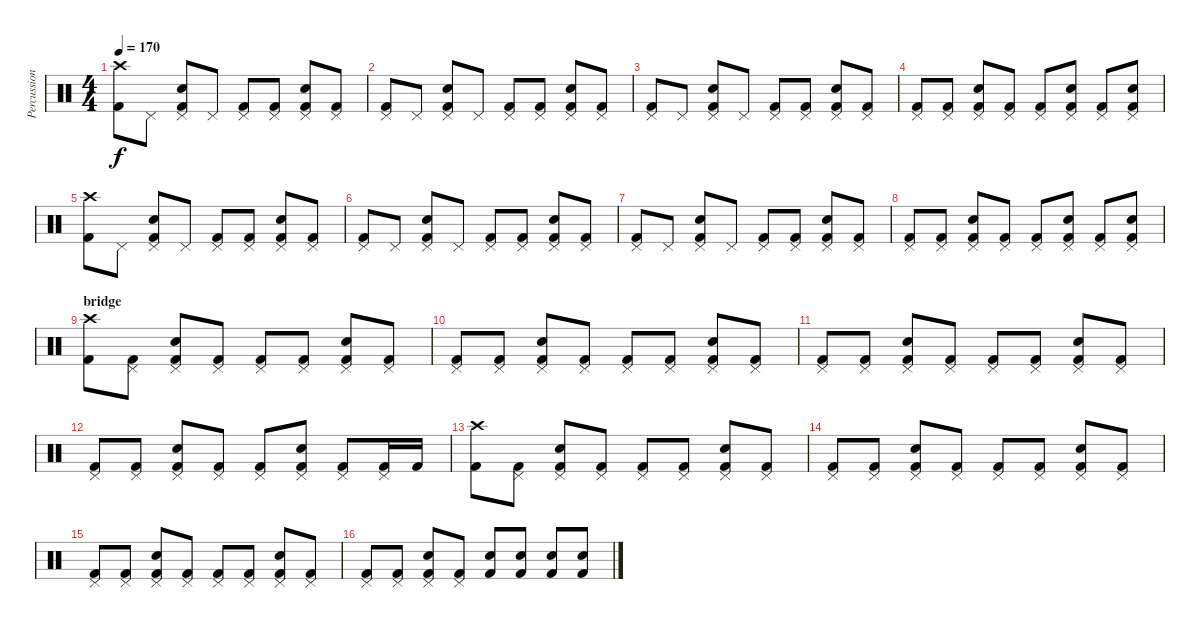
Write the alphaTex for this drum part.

\track ("Percussion" "Percussion") {instrument percussion}
\staff {score}
\articulation defaults
\ts (4 4)
\section ("" "")
\tempo 170
\clef neutral
\ks c
("Crash high (hit)" "Kick (hit) 2").8{dy f} "Pedal Hi-Hat (hit)".8 ("Pedal Hi-Hat (hit)" "Electric Snare (hit)" "Kick (hit) 2").8 "Pedal Hi-Hat (hit)".8 ("Pedal Hi-Hat (hit)" "Kick (hit) 2").8 ("Pedal Hi-Hat (hit)" "Kick (hit) 2").8 ("Pedal Hi-Hat (hit)" "Electric Snare (hit)" "Kick (hit) 2").8 ("Pedal Hi-Hat (hit)" "Kick (hit) 2").8 |
("Pedal Hi-Hat (hit)" "Kick (hit) 2").8 "Pedal Hi-Hat (hit)".8 ("Pedal Hi-Hat (hit)" "Electric Snare (hit)" "Kick (hit) 2").8 "Pedal Hi-Hat (hit)".8 ("Pedal Hi-Hat (hit)" "Kick (hit) 2").8 ("Pedal Hi-Hat (hit)" "Kick (hit) 2").8 ("Pedal Hi-Hat (hit)" "Electric Snare (hit)" "Kick (hit) 2").8 ("Pedal Hi-Hat (hit)" "Kick (hit) 2").8 |
("Pedal Hi-Hat (hit)" "Kick (hit) 2").8 "Pedal Hi-Hat (hit)".8 ("Pedal Hi-Hat (hit)" "Electric Snare (hit)" "Kick (hit) 2").8 "Pedal Hi-Hat (hit)".8 ("Pedal Hi-Hat (hit)" "Kick (hit) 2").8 ("Pedal Hi-Hat (hit)" "Kick (hit) 2").8 ("Pedal Hi-Hat (hit)" "Electric Snare (hit)" "Kick (hit) 2").8 ("Pedal Hi-Hat (hit)" "Kick (hit) 2").8 |
("Pedal Hi-Hat (hit)" "Kick (hit) 2").8 ("Pedal Hi-Hat (hit)" "Kick (hit) 2").8 ("Pedal Hi-Hat (hit)" "Electric Snare (hit)" "Kick (hit) 2").8 ("Pedal Hi-Hat (hit)" "Kick (hit) 2").8 ("Pedal Hi-Hat (hit)" "Kick (hit) 2").8 ("Pedal Hi-Hat (hit)" "Electric Snare (hit)" "Kick (hit) 2").8 ("Pedal Hi-Hat (hit)" "Kick (hit) 2").8 ("Pedal Hi-Hat (hit)" "Electric Snare (hit)" "Kick (hit) 2").8 |
("Crash high (hit)" "Kick (hit) 2").8 "Pedal Hi-Hat (hit)".8 ("Pedal Hi-Hat (hit)" "Electric Snare (hit)" "Kick (hit) 2").8 "Pedal Hi-Hat (hit)".8 ("Pedal Hi-Hat (hit)" "Kick (hit) 2").8 ("Pedal Hi-Hat (hit)" "Kick (hit) 2").8 ("Pedal Hi-Hat (hit)" "Electric Snare (hit)" "Kick (hit) 2").8 ("Pedal Hi-Hat (hit)" "Kick (hit) 2").8 |
("Pedal Hi-Hat (hit)" "Kick (hit) 2").8 "Pedal Hi-Hat (hit)".8 ("Pedal Hi-Hat (hit)" "Electric Snare (hit)" "Kick (hit) 2").8 "Pedal Hi-Hat (hit)".8 ("Pedal Hi-Hat (hit)" "Kick (hit) 2").8 ("Pedal Hi-Hat (hit)" "Kick (hit) 2").8 ("Pedal Hi-Hat (hit)" "Electric Snare (hit)" "Kick (hit) 2").8 ("Pedal Hi-Hat (hit)" "Kick (hit) 2").8 |
("Pedal Hi-Hat (hit)" "Kick (hit) 2").8 "Pedal Hi-Hat (hit)".8 ("Pedal Hi-Hat (hit)" "Electric Snare (hit)" "Kick (hit) 2").8 "Pedal Hi-Hat (hit)".8 ("Pedal Hi-Hat (hit)" "Kick (hit) 2").8 ("Pedal Hi-Hat (hit)" "Kick (hit) 2").8 ("Pedal Hi-Hat (hit)" "Electric Snare (hit)" "Kick (hit) 2").8 ("Pedal Hi-Hat (hit)" "Kick (hit) 2").8 |
("Pedal Hi-Hat (hit)" "Kick (hit) 2").8 ("Pedal Hi-Hat (hit)" "Kick (hit) 2").8 ("Pedal Hi-Hat (hit)" "Electric Snare (hit)" "Kick (hit) 2").8 ("Pedal Hi-Hat (hit)" "Kick (hit) 2").8 ("Pedal Hi-Hat (hit)" "Kick (hit) 2").8 ("Pedal Hi-Hat (hit)" "Electric Snare (hit)" "Kick (hit) 2").8 ("Pedal Hi-Hat (hit)" "Kick (hit) 2").8 ("Pedal Hi-Hat (hit)" "Electric Snare (hit)" "Kick (hit) 2").8 |
\section ("" "bridge")
("Crash high (hit)" "Kick (hit) 2").8 ("Pedal Hi-Hat (hit)" "Kick (hit) 2").8 ("Pedal Hi-Hat (hit)" "Electric Snare (hit)" "Kick (hit) 2").8 ("Pedal Hi-Hat (hit)" "Kick (hit) 2").8 ("Pedal Hi-Hat (hit)" "Kick (hit) 2").8 ("Pedal Hi-Hat (hit)" "Kick (hit) 2").8 ("Pedal Hi-Hat (hit)" "Electric Snare (hit)" "Kick (hit) 2").8 ("Pedal Hi-Hat (hit)" "Kick (hit) 2").8 |
("Pedal Hi-Hat (hit)" "Kick (hit) 2").8 ("Pedal Hi-Hat (hit)" "Kick (hit) 2").8 ("Pedal Hi-Hat (hit)" "Electric Snare (hit)" "Kick (hit) 2").8 ("Pedal Hi-Hat (hit)" "Kick (hit) 2").8 ("Pedal Hi-Hat (hit)" "Kick (hit) 2").8 ("Pedal Hi-Hat (hit)" "Kick (hit) 2").8 ("Pedal Hi-Hat (hit)" "Electric Snare (hit)" "Kick (hit) 2").8 ("Pedal Hi-Hat (hit)" "Kick (hit) 2").8 |
("Pedal Hi-Hat (hit)" "Kick (hit) 2").8 ("Pedal Hi-Hat (hit)" "Kick (hit) 2").8 ("Pedal Hi-Hat (hit)" "Electric Snare (hit)" "Kick (hit) 2").8 ("Pedal Hi-Hat (hit)" "Kick (hit) 2").8 ("Pedal Hi-Hat (hit)" "Kick (hit) 2").8 ("Pedal Hi-Hat (hit)" "Kick (hit) 2").8 ("Pedal Hi-Hat (hit)" "Electric Snare (hit)" "Kick (hit) 2").8 ("Pedal Hi-Hat (hit)" "Kick (hit) 2").8 |
("Pedal Hi-Hat (hit)" "Kick (hit) 2").8 ("Pedal Hi-Hat (hit)" "Kick (hit) 2").8 ("Pedal Hi-Hat (hit)" "Electric Snare (hit)" "Kick (hit) 2").8 ("Pedal Hi-Hat (hit)" "Kick (hit) 2").8 ("Pedal Hi-Hat (hit)" "Kick (hit) 2").8 ("Pedal Hi-Hat (hit)" "Electric Snare (hit)" "Kick (hit) 2").8 ("Pedal Hi-Hat (hit)" "Kick (hit) 2").8 ("Pedal Hi-Hat (hit)" "Kick (hit) 2").16 "Kick (hit) 2".16 |
("Crash high (hit)" "Kick (hit) 2").8 ("Pedal Hi-Hat (hit)" "Kick (hit) 2").8 ("Pedal Hi-Hat (hit)" "Electric Snare (hit)" "Kick (hit) 2").8 ("Pedal Hi-Hat (hit)" "Kick (hit) 2").8 ("Pedal Hi-Hat (hit)" "Kick (hit) 2").8 ("Pedal Hi-Hat (hit)" "Kick (hit) 2").8 ("Pedal Hi-Hat (hit)" "Electric Snare (hit)" "Kick (hit) 2").8 ("Pedal Hi-Hat (hit)" "Kick (hit) 2").8 |
("Pedal Hi-Hat (hit)" "Kick (hit) 2").8 ("Pedal Hi-Hat (hit)" "Kick (hit) 2").8 ("Pedal Hi-Hat (hit)" "Electric Snare (hit)" "Kick (hit) 2").8 ("Pedal Hi-Hat (hit)" "Kick (hit) 2").8 ("Pedal Hi-Hat (hit)" "Kick (hit) 2").8 ("Pedal Hi-Hat (hit)" "Kick (hit) 2").8 ("Pedal Hi-Hat (hit)" "Electric Snare (hit)" "Kick (hit) 2").8 ("Pedal Hi-Hat (hit)" "Kick (hit) 2").8 |
("Pedal Hi-Hat (hit)" "Kick (hit) 2").8 ("Pedal Hi-Hat (hit)" "Kick (hit) 2").8 ("Pedal Hi-Hat (hit)" "Electric Snare (hit)" "Kick (hit) 2").8 ("Pedal Hi-Hat (hit)" "Kick (hit) 2").8 ("Pedal Hi-Hat (hit)" "Kick (hit) 2").8 ("Pedal Hi-Hat (hit)" "Kick (hit) 2").8 ("Pedal Hi-Hat (hit)" "Electric Snare (hit)" "Kick (hit) 2").8 ("Pedal Hi-Hat (hit)" "Kick (hit) 2").8 |
("Pedal Hi-Hat (hit)" "Kick (hit) 2").8 ("Pedal Hi-Hat (hit)" "Kick (hit) 2").8 ("Pedal Hi-Hat (hit)" "Electric Snare (hit)" "Kick (hit) 2").8 ("Pedal Hi-Hat (hit)" "Kick (hit) 2").8 ("Electric Snare (hit)" "Kick (hit) 2").8 ("Electric Snare (hit)" "Kick (hit) 2").8 ("Electric Snare (hit)" "Kick (hit) 2").8 ("Electric Snare (hit)" "Kick (hit) 2").8
